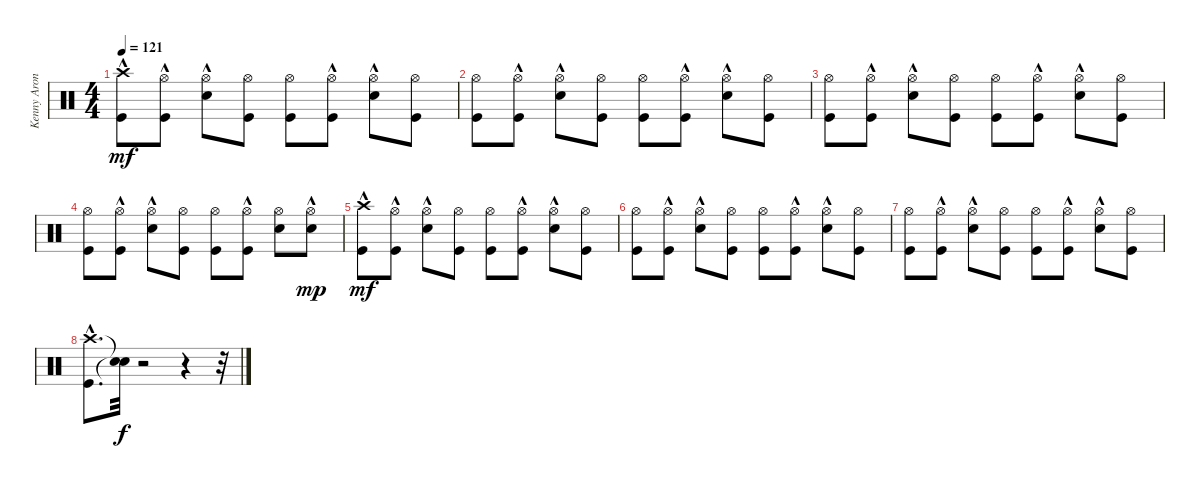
\track ("Kenny Aronoff - Batterie" "Kenny Aron") {instrument percussion}
\staff {score}
\articulation defaults
\ts (4 4)
\tempo 121
\clef neutral
\ks c
("Kick (hit)" "Crash high (hit)"{hac}).8{dy mf} ("Hi-Hat (open)" "Kick (hit)"{hac}).8 ("Electric Snare (hit)"{hac} "Hi-Hat (open)").8 ("Hi-Hat (open)" "Kick (hit)").8 ("Kick (hit)" "Hi-Hat (open)").8 ("Hi-Hat (open)" "Kick (hit)"{hac}).8 ("Electric Snare (hit)"{hac} "Hi-Hat (open)").8 ("Hi-Hat (open)" "Kick (hit)").8 |
("Kick (hit)" "Hi-Hat (open)").8 ("Hi-Hat (open)" "Kick (hit)"{hac}).8 ("Electric Snare (hit)"{hac} "Hi-Hat (open)").8 ("Hi-Hat (open)" "Kick (hit)").8 ("Kick (hit)" "Hi-Hat (open)").8 ("Hi-Hat (open)" "Kick (hit)"{hac}).8 ("Electric Snare (hit)"{hac} "Hi-Hat (open)").8 ("Hi-Hat (open)" "Kick (hit)").8 |
("Kick (hit)" "Hi-Hat (open)").8 ("Hi-Hat (open)" "Kick (hit)"{hac}).8 ("Electric Snare (hit)"{hac} "Hi-Hat (open)").8 ("Hi-Hat (open)" "Kick (hit)").8 ("Kick (hit)" "Hi-Hat (open)").8 ("Hi-Hat (open)" "Kick (hit)"{hac}).8 ("Electric Snare (hit)"{hac} "Hi-Hat (open)").8 ("Hi-Hat (open)" "Kick (hit)").8 |
("Kick (hit)" "Hi-Hat (open)").8 ("Hi-Hat (open)" "Kick (hit)"{hac}).8 ("Electric Snare (hit)"{hac} "Hi-Hat (open)").8 ("Hi-Hat (open)" "Kick (hit)").8 ("Kick (hit)" "Hi-Hat (open)").8 ("Hi-Hat (open)" "Kick (hit)"{hac}).8 ("Electric Snare (hit)" "Hi-Hat (open)").8 ("Hi-Hat (open)" "Electric Snare (hit)"{hac}).8{dy mp} |
("Kick (hit)" "Crash high (hit)"{hac}).8{dy mf} ("Hi-Hat (open)" "Kick (hit)"{hac}).8 ("Electric Snare (hit)"{hac} "Hi-Hat (open)").8 ("Hi-Hat (open)" "Kick (hit)").8 ("Kick (hit)" "Hi-Hat (open)").8 ("Hi-Hat (open)" "Kick (hit)"{hac}).8 ("Electric Snare (hit)"{hac} "Hi-Hat (open)").8 ("Hi-Hat (open)" "Kick (hit)").8 |
("Kick (hit)" "Hi-Hat (open)").8 ("Hi-Hat (open)" "Kick (hit)"{hac}).8 ("Electric Snare (hit)"{hac} "Hi-Hat (open)").8 ("Hi-Hat (open)" "Kick (hit)").8 ("Kick (hit)" "Hi-Hat (open)").8 ("Hi-Hat (open)" "Kick (hit)"{hac}).8 ("Electric Snare (hit)"{hac} "Hi-Hat (open)").8 ("Hi-Hat (open)" "Kick (hit)").8 |
("Kick (hit)" "Hi-Hat (open)").8 ("Hi-Hat (open)" "Kick (hit)"{hac}).8 ("Electric Snare (hit)"{hac} "Hi-Hat (open)").8 ("Hi-Hat (open)" "Kick (hit)").8 ("Kick (hit)" "Hi-Hat (open)").8 ("Hi-Hat (open)" "Kick (hit)"{hac}).8 ("Electric Snare (hit)"{hac} "Hi-Hat (open)").8 ("Hi-Hat (open)" "Kick (hit)").8 |
("Kick (hit)"{hac} "Crash high (hit)"{hac}).8{d} ("Snare (hit)"{t} "Snare (hit)"{t}).32{dy f} r.2 r.4 r.32
